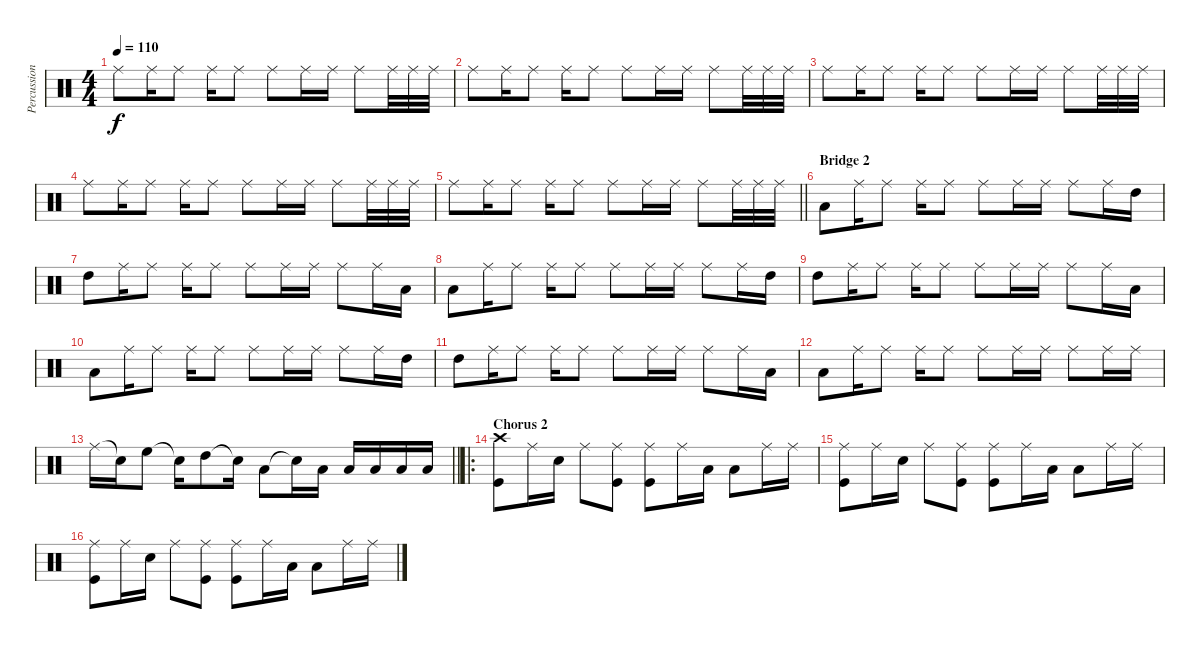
\track ("Percussion" "Percussion") {instrument percussion}
\staff {score}
\articulation defaults
\ts (4 4)
\tempo 110
\clef neutral
\ks c "Ride (middle)".8{dy f} "Ride (middle)".16 "Ride (middle)".8 "Ride (middle)".16 "Ride (middle)".8 "Ride (middle)".8 "Ride (middle)".16 "Ride (middle)".16 "Ride (middle)".8 "Ride (middle)".32 "Ride (middle)".32 "Ride (middle)".32
|
"Ride (middle)".8 "Ride (middle)".16 "Ride (middle)".8 "Ride (middle)".16 "Ride (middle)".8 "Ride (middle)".8 "Ride (middle)".16 "Ride (middle)".16 "Ride (middle)".8 "Ride (middle)".32 "Ride (middle)".32 "Ride (middle)".32 |
"Ride (middle)".8 "Ride (middle)".16 "Ride (middle)".8 "Ride (middle)".16 "Ride (middle)".8 "Ride (middle)".8 "Ride (middle)".16 "Ride (middle)".16 "Ride (middle)".8 "Ride (middle)".32 "Ride (middle)".32 "Ride (middle)".32 |
"Ride (middle)".8 "Ride (middle)".16 "Ride (middle)".8 "Ride (middle)".16 "Ride (middle)".8 "Ride (middle)".8 "Ride (middle)".16 "Ride (middle)".16 "Ride (middle)".8 "Ride (middle)".32 "Ride (middle)".32 "Ride (middle)".32 |
\barLineRight lightlight "Ride (middle)".8 "Ride (middle)".16 "Ride (middle)".8 "Ride (middle)".16 "Ride (middle)".8 "Ride (middle)".8 "Ride (middle)".16 "Ride (middle)".16 "Ride (middle)".8 "Ride (middle)".32 "Ride (middle)".32 "Ride (middle)".32
|
\section ("" "Bridge 2")
"Low Floor Tom (hit)".8 "Ride (middle)".16 "Ride (middle)".8 "Ride (middle)".16 "Ride (middle)".8 "Ride (middle)".8 "Ride (middle)".16 "Ride (middle)".16 "Ride (middle)".8 "Ride (middle)".16 "High Tom (hit)".16 |
"High Tom (hit)".8 "Ride (middle)".16 "Ride (middle)".8 "Ride (middle)".16 "Ride (middle)".8 "Ride (middle)".8 "Ride (middle)".16 "Ride (middle)".16 "Ride (middle)".8 "Ride (middle)".16 "Low Floor Tom (hit)".16 |
"Low Floor Tom (hit)".8 "Ride (middle)".16 "Ride (middle)".8 "Ride (middle)".16 "Ride (middle)".8 "Ride (middle)".8 "Ride (middle)".16 "Ride (middle)".16 "Ride (middle)".8 "Ride (middle)".16 "High Tom (hit)".16 |
"High Tom (hit)".8 "Ride (middle)".16 "Ride (middle)".8 "Ride (middle)".16 "Ride (middle)".8 "Ride (middle)".8 "Ride (middle)".16 "Ride (middle)".16 "Ride (middle)".8 "Ride (middle)".16 "Low Floor Tom (hit)".16 |
"Low Floor Tom (hit)".8 "Ride (middle)".16 "Ride (middle)".8 "Ride (middle)".16 "Ride (middle)".8 "Ride (middle)".8 "Ride (middle)".16 "Ride (middle)".16 "Ride (middle)".8 "Ride (middle)".16 "High Tom (hit)".16 |
"High Tom (hit)".8 "Ride (middle)".16 "Ride (middle)".8 "Ride (middle)".16 "Ride (middle)".8 "Ride (middle)".8 "Ride (middle)".16 "Ride (middle)".16 "Ride (middle)".8 "Ride (middle)".16 "Low Floor Tom (hit)".16 |
"Low Floor Tom (hit)".8 "Ride (middle)".16 "Ride (middle)".8 "Ride (middle)".16 "Ride (middle)".8 "Ride (middle)".8 "Ride (middle)".16 "Ride (middle)".16 "Ride (middle)".8 "Ride (middle)".16 "Ride (middle)".16 |
\barLineRight lightlight "Ride (middle)".16 "Snare (hit)"{t}.16 "High Floor Tom (hit)".8 "Snare (hit)"{t}.16 "High Tom (hit)".8 "Snare (hit)"{t}.16 "Low Floor Tom (hit)".8 "Snare (hit)"{t}.16 "Low Floor Tom (hit)".16 "Low Floor Tom (hit)".16 "Low Floor Tom (hit)".16 "Low Floor Tom (hit)".16 "Low Floor Tom (hit)".16
|
\ro
\section ("" "Chorus 2")
("Crash high (hit)" "Kick (hit)").8 "Ride (middle)".16 "Snare (hit) 2".16 "Ride (middle)".8 ("Ride (middle)" "Kick (hit)").8 ("Ride (middle)" "Kick (hit)").8 "Ride (middle)".16 "Low Floor Tom (hit)".16 "Low Floor Tom (hit)".8 "Ride (middle)".16 "Ride (middle)".16 |
("Ride (middle)" "Kick (hit)").8 "Ride (middle)".16 "Snare (hit) 2".16 "Ride (middle)".8 ("Ride (middle)" "Kick (hit)").8 ("Ride (middle)" "Kick (hit)").8 "Ride (middle)".16 "Low Floor Tom (hit)".16 "Low Floor Tom (hit)".8 "Ride (middle)".16 "Ride (middle)".16 |
("Ride (middle)" "Kick (hit)").8 "Ride (middle)".16 "Snare (hit) 2".16 "Ride (middle)".8 ("Ride (middle)" "Kick (hit)").8 ("Ride (middle)" "Kick (hit)").8 "Ride (middle)".16 "Low Floor Tom (hit)".16 "Low Floor Tom (hit)".8 "Ride (middle)".16 "Ride (middle)".16
